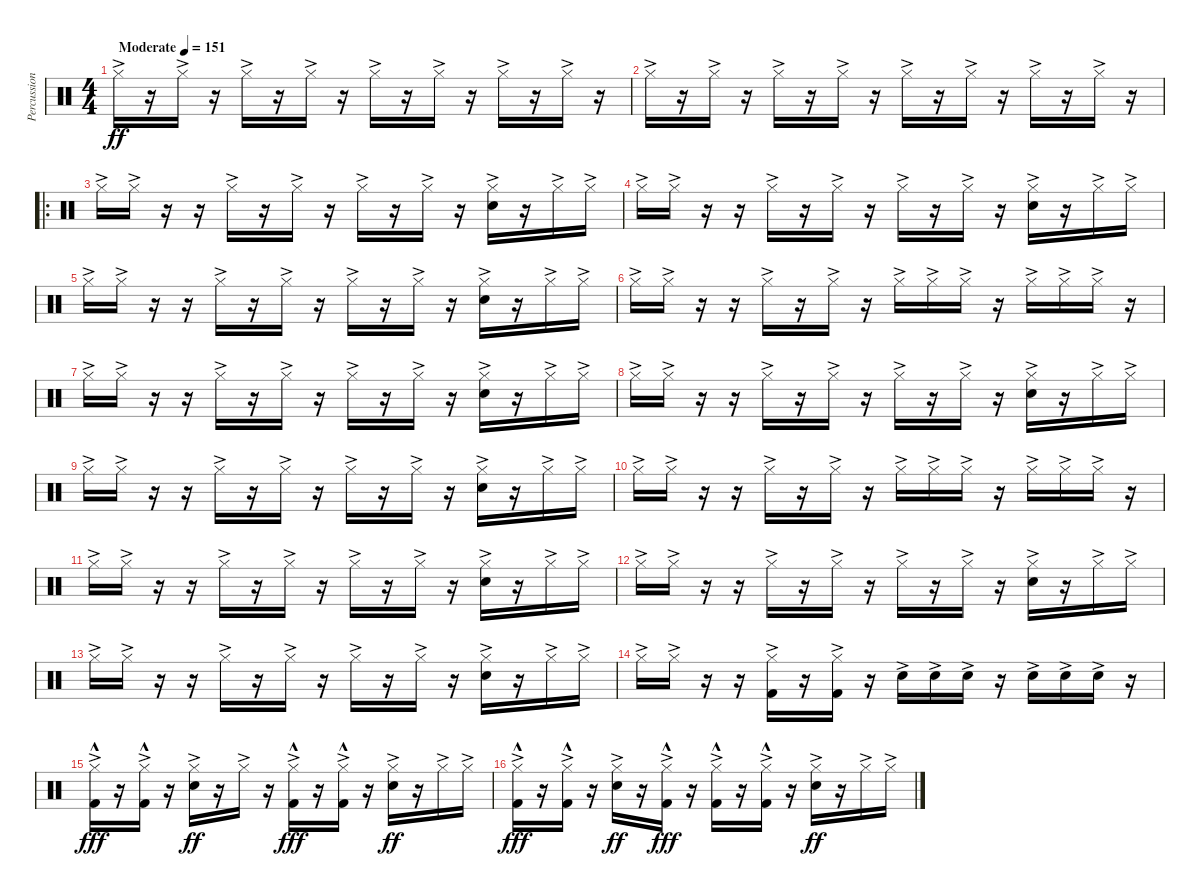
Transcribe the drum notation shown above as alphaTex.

\track ("Percussion" "Percussion") {instrument percussion}
\staff {score}
\articulation defaults
\ts (4 4)
\tempo (151 "Moderate")
\clef neutral
\ks c "Hi-Hat (closed)"{ac}.16{dy ff}
r.16 "Hi-Hat (closed)"{ac}.16 r.16 "Hi-Hat (closed)"{ac}.16 r.16 "Hi-Hat (closed)"{ac}.16 r.16 "Hi-Hat (closed)"{ac}.16 r.16 "Hi-Hat (closed)"{ac}.16 r.16 "Hi-Hat (closed)"{ac}.16 r.16 "Hi-Hat (closed)"{ac}.16 r.16 |
"Hi-Hat (closed)"{ac}.16 r.16 "Hi-Hat (closed)"{ac}.16 r.16 "Hi-Hat (closed)"{ac}.16 r.16 "Hi-Hat (closed)"{ac}.16 r.16 "Hi-Hat (closed)"{ac}.16 r.16 "Hi-Hat (closed)"{ac}.16 r.16 "Hi-Hat (closed)"{ac}.16 r.16 "Hi-Hat (closed)"{ac}.16 r.16 |
\ro "Hi-Hat (closed)"{ac}.16 "Hi-Hat (closed)"{ac}.16
r.16 r.16 "Hi-Hat (closed)"{ac}.16 r.16 "Hi-Hat (closed)"{ac}.16 r.16 "Hi-Hat (closed)"{ac}.16 r.16 "Hi-Hat (closed)"{ac}.16 r.16 ("Hi-Hat (closed)"{ac} "Snare (hit) 2"{ac}).16 r.16 "Hi-Hat (closed)"{ac}.16 "Hi-Hat (closed)"{ac}.16 |
"Hi-Hat (closed)"{ac}.16 "Hi-Hat (closed)"{ac}.16 r.16 r.16 "Hi-Hat (closed)"{ac}.16 r.16 "Hi-Hat (closed)"{ac}.16 r.16 "Hi-Hat (closed)"{ac}.16 r.16 "Hi-Hat (closed)"{ac}.16 r.16 ("Hi-Hat (closed)"{ac} "Snare (hit) 2"{ac}).16 r.16 "Hi-Hat (closed)"{ac}.16 "Hi-Hat (closed)"{ac}.16 |
"Hi-Hat (closed)"{ac}.16 "Hi-Hat (closed)"{ac}.16 r.16 r.16 "Hi-Hat (closed)"{ac}.16 r.16 "Hi-Hat (closed)"{ac}.16 r.16 "Hi-Hat (closed)"{ac}.16 r.16 "Hi-Hat (closed)"{ac}.16 r.16 ("Hi-Hat (closed)"{ac} "Snare (hit) 2"{ac}).16 r.16 "Hi-Hat (closed)"{ac}.16 "Hi-Hat (closed)"{ac}.16 |
"Hi-Hat (closed)"{ac}.16 "Hi-Hat (closed)"{ac}.16 r.16 r.16 "Hi-Hat (closed)"{ac}.16 r.16 "Hi-Hat (closed)"{ac}.16 r.16 "Hi-Hat (closed)"{ac}.16 "Hi-Hat (closed)"{ac}.16 "Hi-Hat (closed)"{ac}.16 r.16 "Hi-Hat (closed)"{ac}.16 "Hi-Hat (closed)"{ac}.16 "Hi-Hat (closed)"{ac}.16 r.16 |
"Hi-Hat (closed)"{ac}.16 "Hi-Hat (closed)"{ac}.16 r.16 r.16 "Hi-Hat (closed)"{ac}.16 r.16 "Hi-Hat (closed)"{ac}.16 r.16 "Hi-Hat (closed)"{ac}.16 r.16 "Hi-Hat (closed)"{ac}.16 r.16 ("Hi-Hat (closed)"{ac} "Snare (hit) 2"{ac}).16 r.16 "Hi-Hat (closed)"{ac}.16 "Hi-Hat (closed)"{ac}.16 |
"Hi-Hat (closed)"{ac}.16 "Hi-Hat (closed)"{ac}.16 r.16 r.16 "Hi-Hat (closed)"{ac}.16 r.16 "Hi-Hat (closed)"{ac}.16 r.16 "Hi-Hat (closed)"{ac}.16 r.16 "Hi-Hat (closed)"{ac}.16 r.16 ("Hi-Hat (closed)"{ac} "Snare (hit) 2"{ac}).16 r.16 "Hi-Hat (closed)"{ac}.16 "Hi-Hat (closed)"{ac}.16 |
"Hi-Hat (closed)"{ac}.16 "Hi-Hat (closed)"{ac}.16 r.16 r.16 "Hi-Hat (closed)"{ac}.16 r.16 "Hi-Hat (closed)"{ac}.16 r.16 "Hi-Hat (closed)"{ac}.16 r.16 "Hi-Hat (closed)"{ac}.16 r.16 ("Hi-Hat (closed)"{ac} "Snare (hit) 2"{ac}).16 r.16 "Hi-Hat (closed)"{ac}.16 "Hi-Hat (closed)"{ac}.16 |
"Hi-Hat (closed)"{ac}.16 "Hi-Hat (closed)"{ac}.16 r.16 r.16 "Hi-Hat (closed)"{ac}.16 r.16 "Hi-Hat (closed)"{ac}.16 r.16 "Hi-Hat (closed)"{ac}.16 "Hi-Hat (closed)"{ac}.16 "Hi-Hat (closed)"{ac}.16 r.16 "Hi-Hat (closed)"{ac}.16 "Hi-Hat (closed)"{ac}.16 "Hi-Hat (closed)"{ac}.16 r.16 |
"Hi-Hat (closed)"{ac}.16 "Hi-Hat (closed)"{ac}.16 r.16 r.16 "Hi-Hat (closed)"{ac}.16 r.16 "Hi-Hat (closed)"{ac}.16 r.16 "Hi-Hat (closed)"{ac}.16 r.16 "Hi-Hat (closed)"{ac}.16 r.16 ("Hi-Hat (closed)"{ac} "Snare (hit) 2"{ac}).16 r.16 "Hi-Hat (closed)"{ac}.16 "Hi-Hat (closed)"{ac}.16 |
"Hi-Hat (closed)"{ac}.16 "Hi-Hat (closed)"{ac}.16 r.16 r.16 "Hi-Hat (closed)"{ac}.16 r.16 "Hi-Hat (closed)"{ac}.16 r.16 "Hi-Hat (closed)"{ac}.16 r.16 "Hi-Hat (closed)"{ac}.16 r.16 ("Hi-Hat (closed)"{ac} "Snare (hit) 2"{ac}).16 r.16 "Hi-Hat (closed)"{ac}.16 "Hi-Hat (closed)"{ac}.16 |
"Hi-Hat (closed)"{ac}.16 "Hi-Hat (closed)"{ac}.16 r.16 r.16 "Hi-Hat (closed)"{ac}.16 r.16 "Hi-Hat (closed)"{ac}.16 r.16 "Hi-Hat (closed)"{ac}.16 r.16 "Hi-Hat (closed)"{ac}.16 r.16 ("Hi-Hat (closed)"{ac} "Snare (hit) 2"{ac}).16 r.16 "Hi-Hat (closed)"{ac}.16 "Hi-Hat (closed)"{ac}.16 |
"Hi-Hat (closed)"{ac}.16 "Hi-Hat (closed)"{ac}.16 r.16 r.16 ("Hi-Hat (closed)"{ac} "Kick (hit) 2"{ac}).16 r.16 ("Hi-Hat (closed)"{ac} "Kick (hit) 2"{ac}).16 r.16 "Snare (hit) 2"{ac}.16 "Snare (hit) 2"{ac}.16 "Snare (hit) 2"{ac}.16 r.16 "Snare (hit) 2"{ac}.16 "Snare (hit) 2"{ac}.16 "Snare (hit) 2"{ac}.16 r.16 |
("Hi-Hat (closed)"{ac} "Kick (hit) 2"{hac}).16{dy fff} r.16 ("Hi-Hat (closed)"{ac} "Kick (hit) 2"{hac}).16 r.16 ("Hi-Hat (closed)"{ac} "Snare (hit) 2"{ac}).16{dy ff} r.16 "Hi-Hat (closed)"{ac}.16 r.16 ("Hi-Hat (closed)"{ac} "Kick (hit) 2"{hac}).16{dy fff} r.16 ("Hi-Hat (closed)"{ac} "Kick (hit) 2"{hac}).16 r.16 ("Hi-Hat (closed)"{ac} "Snare (hit) 2"{ac}).16{dy ff} r.16 "Hi-Hat (closed)"{ac}.16 "Hi-Hat (closed)"{ac}.16 |
("Hi-Hat (closed)"{ac} "Kick (hit) 2"{hac}).16{dy fff} r.16 ("Hi-Hat (closed)"{ac} "Kick (hit) 2"{hac}).16 r.16 ("Hi-Hat (closed)"{ac} "Snare (hit) 2"{ac}).16{dy ff} r.16 ("Hi-Hat (closed)"{ac} "Kick (hit) 2"{hac}).16{dy fff} r.16 ("Hi-Hat (closed)"{ac} "Kick (hit) 2"{hac}).16 r.16 ("Hi-Hat (closed)"{ac} "Kick (hit) 2"{hac}).16 r.16 ("Hi-Hat (closed)"{ac} "Snare (hit) 2"{ac}).16{dy ff} r.16 "Hi-Hat (closed)"{ac}.16 "Hi-Hat (closed)"{ac}.16
